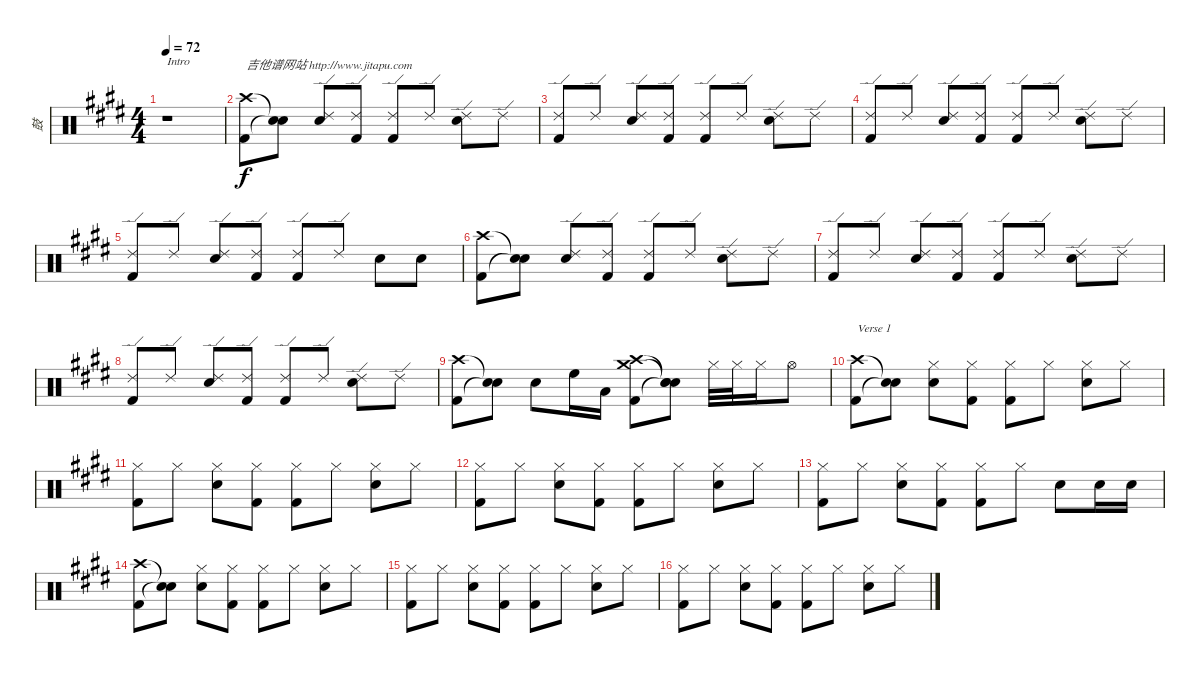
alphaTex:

\track ("鼓" "鼓") {instrument percussion}
\staff {score}
\articulation defaults
\ts (4 4)
\tempo 72
\clef neutral
\ks e
r.1{txt "Intro" dy f} |
("Crash high (hit)" "Kick (hit) 2").8{txt "吉他谱网站 http://www.jitapu.com"} ("Snare (hit)"{t} "Snare (hit)"{t}).8 ("Ride (edge) 2" "Electric Snare (hit)").8 ("Ride (edge) 2" "Kick (hit) 2").8 ("Ride (edge) 2" "Kick (hit) 2").8 "Ride (edge) 2".8 ("Ride (edge) 2" "Electric Snare (hit)").8 "Ride (edge) 2".8 |
("Ride (edge) 2" "Kick (hit) 2").8 "Ride (edge) 2".8 ("Ride (edge) 2" "Electric Snare (hit)").8 ("Ride (edge) 2" "Kick (hit) 2").8 ("Ride (edge) 2" "Kick (hit) 2").8 "Ride (edge) 2".8 ("Ride (edge) 2" "Electric Snare (hit)").8 "Ride (edge) 2".8 |
("Ride (edge) 2" "Kick (hit) 2").8 "Ride (edge) 2".8 ("Ride (edge) 2" "Electric Snare (hit)").8 ("Ride (edge) 2" "Kick (hit) 2").8 ("Ride (edge) 2" "Kick (hit) 2").8 "Ride (edge) 2".8 ("Ride (edge) 2" "Electric Snare (hit)").8 "Ride (edge) 2".8 |
("Ride (edge) 2" "Kick (hit) 2").8 "Ride (edge) 2".8 ("Ride (edge) 2" "Electric Snare (hit)").8 ("Ride (edge) 2" "Kick (hit) 2").8 ("Ride (edge) 2" "Kick (hit) 2").8 "Ride (edge) 2".8 "Electric Snare (hit)".8 "Electric Snare (hit)".8 |
("Crash high (hit)" "Kick (hit) 2").8 ("Snare (hit)"{t} "Snare (hit)"{t}).8 ("Ride (edge) 2" "Electric Snare (hit)").8 ("Ride (edge) 2" "Kick (hit) 2").8 ("Ride (edge) 2" "Kick (hit) 2").8 "Ride (edge) 2".8 ("Ride (edge) 2" "Electric Snare (hit)").8 "Ride (edge) 2".8 |
("Ride (edge) 2" "Kick (hit) 2").8 "Ride (edge) 2".8 ("Ride (edge) 2" "Electric Snare (hit)").8 ("Ride (edge) 2" "Kick (hit) 2").8 ("Ride (edge) 2" "Kick (hit) 2").8 "Ride (edge) 2".8 ("Ride (edge) 2" "Electric Snare (hit)").8 "Ride (edge) 2".8 |
("Ride (edge) 2" "Kick (hit) 2").8 "Ride (edge) 2".8 ("Ride (edge) 2" "Electric Snare (hit)").8 ("Ride (edge) 2" "Kick (hit) 2").8 ("Ride (edge) 2" "Kick (hit) 2").8 "Ride (edge) 2".8 ("Ride (edge) 2" "Electric Snare (hit)").8 "Ride (edge) 2".8 |
("Crash high (hit)" "Kick (hit) 2").8 ("Snare (hit)"{t} "Snare (hit)"{t}).8 "Electric Snare (hit)".8 "High Floor Tom (hit)".16 "Low Tom (hit)".16 ("Crash high (hit)" "Crash medium (hit)" "Kick (hit) 2").8 ("Snare (hit)"{t} "Snare (hit)"{t} "Snare (hit)"{t}).8 "Hi-Hat (closed)".32 "Hi-Hat (closed)".32 "Hi-Hat (closed)".16 "Hi-Hat (open)".8 |
("Crash high (hit)" "Kick (hit) 2").8{txt "Verse 1"} ("Snare (hit)"{t} "Snare (hit)"{t}).8 ("Hi-Hat (closed)" "Electric Snare (hit)").8 ("Hi-Hat (closed)" "Kick (hit) 2").8 ("Hi-Hat (closed)" "Kick (hit) 2").8 "Hi-Hat (closed)".8 ("Hi-Hat (closed)" "Electric Snare (hit)").8 "Hi-Hat (closed)".8 |
("Hi-Hat (closed)" "Kick (hit) 2").8 "Hi-Hat (closed)".8 ("Hi-Hat (closed)" "Electric Snare (hit)").8 ("Hi-Hat (closed)" "Kick (hit) 2").8 ("Hi-Hat (closed)" "Kick (hit) 2").8 "Hi-Hat (closed)".8 ("Hi-Hat (closed)" "Electric Snare (hit)").8 "Hi-Hat (closed)".8 |
("Hi-Hat (closed)" "Kick (hit) 2").8 "Hi-Hat (closed)".8 ("Hi-Hat (closed)" "Electric Snare (hit)").8 ("Hi-Hat (closed)" "Kick (hit) 2").8 ("Hi-Hat (closed)" "Kick (hit) 2").8 "Hi-Hat (closed)".8 ("Hi-Hat (closed)" "Electric Snare (hit)").8 "Hi-Hat (closed)".8 |
("Hi-Hat (closed)" "Kick (hit) 2").8 "Hi-Hat (closed)".8 ("Hi-Hat (closed)" "Electric Snare (hit)").8 ("Hi-Hat (closed)" "Kick (hit) 2").8 ("Hi-Hat (closed)" "Kick (hit) 2").8 "Hi-Hat (closed)".8 "Electric Snare (hit)".8 "Electric Snare (hit)".16 "Electric Snare (hit)".16 |
("Crash high (hit)" "Kick (hit) 2").8 ("Snare (hit)"{t} "Snare (hit)"{t}).8 ("Hi-Hat (closed)" "Electric Snare (hit)").8 ("Hi-Hat (closed)" "Kick (hit) 2").8 ("Hi-Hat (closed)" "Kick (hit) 2").8 "Hi-Hat (closed)".8 ("Hi-Hat (closed)" "Electric Snare (hit)").8 "Hi-Hat (closed)".8 |
("Hi-Hat (closed)" "Kick (hit) 2").8 "Hi-Hat (closed)".8 ("Hi-Hat (closed)" "Electric Snare (hit)").8 ("Hi-Hat (closed)" "Kick (hit) 2").8 ("Hi-Hat (closed)" "Kick (hit) 2").8 "Hi-Hat (closed)".8 ("Hi-Hat (closed)" "Electric Snare (hit)").8 "Hi-Hat (closed)".8 |
("Hi-Hat (closed)" "Kick (hit) 2").8 "Hi-Hat (closed)".8 ("Hi-Hat (closed)" "Electric Snare (hit)").8 ("Hi-Hat (closed)" "Kick (hit) 2").8 ("Hi-Hat (closed)" "Kick (hit) 2").8 "Hi-Hat (closed)".8 ("Hi-Hat (closed)" "Electric Snare (hit)").8 "Hi-Hat (closed)".8
